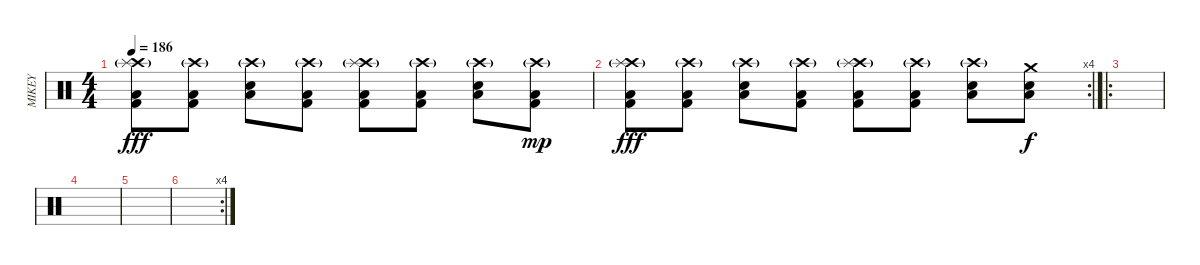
\track ("MIKEY" "MIKEY") {instrument percussion}
\staff {score}
\articulation defaults
\ts (4 4)
\tempo 186
\clef neutral
\ks c
("Crash high (hit)"{g} "Low Floor Tom (hit)" "Splash (hit)" "Kick (hit) 2").8{dy fff} ("Crash high (hit)"{g} "Low Floor Tom (hit)" "Kick (hit) 2").8 ("Crash high (hit)"{g} "Low Floor Tom (hit)" "Snare (hit) 2").8 ("Crash high (hit)"{g} "Low Floor Tom (hit)" "Kick (hit) 2").8 ("Crash high (hit)"{g} "Low Floor Tom (hit)" "Splash (hit)" "Kick (hit) 2").8 ("Crash high (hit)"{g} "Low Floor Tom (hit)" "Kick (hit) 2").8 ("Crash high (hit)"{g} "Low Floor Tom (hit)" "Snare (hit) 2").8 ("Crash high (hit)"{g} "Low Floor Tom (hit)" "Kick (hit) 2").8{dy mp} |
\rc 4
("Crash high (hit)"{g} "Low Floor Tom (hit)" "Splash (hit)" "Kick (hit) 2").8{dy fff} ("Crash high (hit)"{g} "Low Floor Tom (hit)" "Kick (hit) 2").8 ("Crash high (hit)"{g} "Low Floor Tom (hit)" "Snare (hit) 2").8 ("Crash high (hit)"{g} "Low Floor Tom (hit)" "Kick (hit) 2").8 ("Crash high (hit)"{g} "Low Floor Tom (hit)" "Splash (hit)" "Kick (hit) 2").8 ("Crash high (hit)"{g} "Low Floor Tom (hit)" "Kick (hit) 2").8 ("Crash high (hit)"{g} "Low Floor Tom (hit)" "Snare (hit) 2").8 ("Crash medium (hit)" "Low Floor Tom (hit)" "Snare (hit) 2").8{dy f} |
\ro
|
|
|
\rc 4
